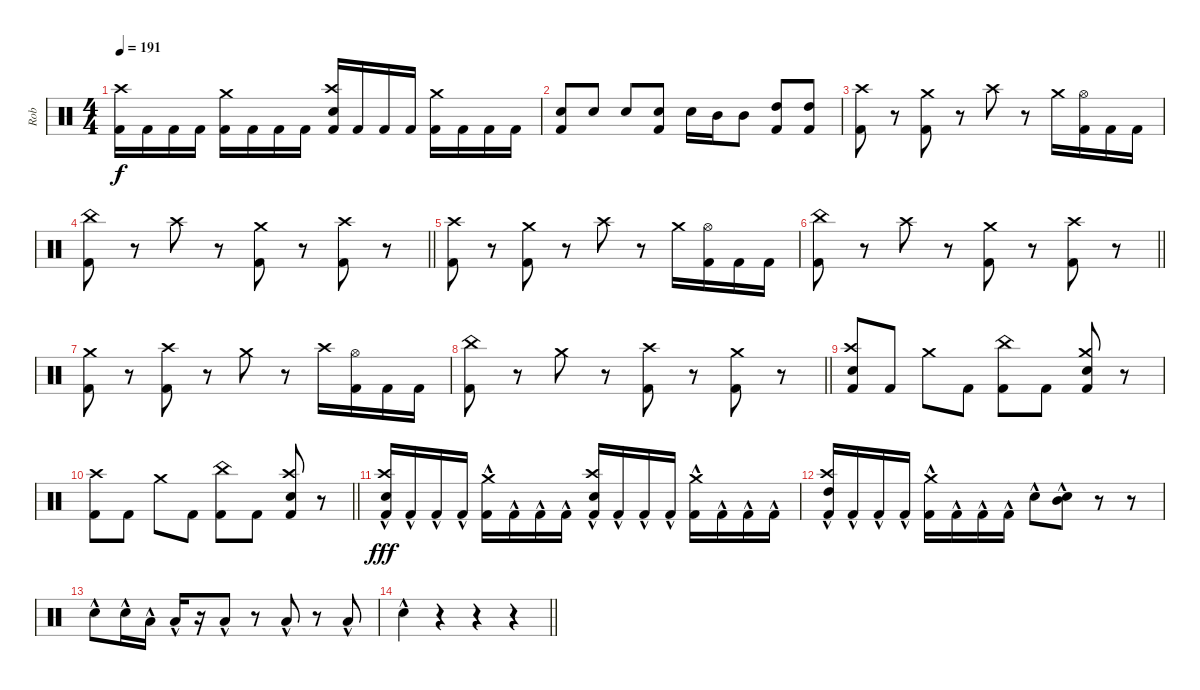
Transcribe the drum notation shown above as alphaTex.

\track ("Rob" "Rob") {instrument percussion}
\staff {score}
\articulation defaults
\ts (4 4)
\tempo 191
\clef neutral
\ks c
("Kick (hit) 2" "Crash high (hit)").16{dy f} "Kick (hit) 2".16 "Kick (hit) 2".16 "Kick (hit) 2".16 ("Kick (hit) 2" "Crash medium (hit)").16 "Kick (hit) 2".16 "Kick (hit) 2".16 "Kick (hit) 2".16 ("Kick (hit) 2" "Crash high (hit)" "Snare (hit) 2").16 "Kick (hit) 2".16 "Kick (hit) 2".16 "Kick (hit) 2".16 ("Kick (hit) 2" "Crash medium (hit)").16 "Kick (hit) 2".16 "Kick (hit) 2".16 "Kick (hit) 2".16 |
("Snare (hit) 2" "Kick (hit) 2").8 "Snare (hit) 2".8 "Snare (hit) 2".8 ("Snare (hit) 2" "Kick (hit) 2").8 "Snare (hit) 2".16 "Mid Tom (hit)".16 "Mid Tom (hit)".8 ("High Tom (hit)" "Kick (hit) 2").8 ("High Tom (hit)" "Kick (hit) 2").8 |
("Crash high (hit)" "Kick (hit) 2").8 r.8 ("Crash medium (hit)" "Kick (hit) 2").8 r.8 "Crash high (hit)".8 r.8 "Crash medium (hit)".16 ("Hi-Hat (open)" "Kick (hit) 2").16 "Kick (hit) 2".16 "Kick (hit) 2".16 |
\barLineRight lightlight
("China (hit)" "Kick (hit) 2").8 r.8 "Crash high (hit)".8 r.8 ("Crash medium (hit)" "Kick (hit) 2").8 r.8 ("Crash high (hit)" "Kick (hit) 2").8 r.8 |
("Crash high (hit)" "Kick (hit) 2").8 r.8 ("Crash medium (hit)" "Kick (hit) 2").8 r.8 "Crash high (hit)".8 r.8 "Crash medium (hit)".16 ("Hi-Hat (open)" "Kick (hit) 2").16 "Kick (hit) 2".16 "Kick (hit) 2".16 |
\barLineRight lightlight
("China (hit)" "Kick (hit) 2").8 r.8 "Crash high (hit)".8 r.8 ("Crash medium (hit)" "Kick (hit) 2").8 r.8 ("Crash high (hit)" "Kick (hit) 2").8 r.8 |
("Crash medium (hit)" "Kick (hit) 2").8 r.8 ("Crash high (hit)" "Kick (hit) 2").8 r.8 "Crash medium (hit)".8 r.8 "Crash high (hit)".16 ("Hi-Hat (open)" "Kick (hit) 2").16 "Kick (hit) 2".16 "Kick (hit) 2".16 |
\barLineRight lightlight
("China (hit)" "Kick (hit) 2").8 r.8 "Crash medium (hit)".8 r.8 ("Crash high (hit)" "Kick (hit) 2").8 r.8 ("Crash medium (hit)" "Kick (hit) 2").8 r.8 |
("Kick (hit) 2" "Crash high (hit)" "Snare (hit) 2").8 "Kick (hit) 2".8 "Crash medium (hit)".8 "Kick (hit) 2".8 ("Kick (hit) 2" "China (hit)").8 "Kick (hit) 2".8 ("Kick (hit) 2" "Crash medium (hit)" "Snare (hit) 2").8 r.8 |
\barLineRight lightlight
("Kick (hit) 2" "Crash high (hit)").8 "Kick (hit) 2".8 "Crash medium (hit)".8 "Kick (hit) 2".8 ("Kick (hit) 2" "China (hit)").8 "Kick (hit) 2".8 ("Kick (hit) 2" "Crash high (hit)" "Snare (hit) 2").8 r.8 |
("Kick (hit) 2"{hac} "Crash high (hit)"{hac} "Snare (hit) 2"{hac}).16{dy fff} "Kick (hit) 2"{hac}.16 "Kick (hit) 2"{hac}.16 "Kick (hit) 2"{hac}.16 ("Kick (hit) 2"{hac} "Crash medium (hit)"{hac}).16 "Kick (hit) 2"{hac}.16 "Kick (hit) 2"{hac}.16 "Kick (hit) 2"{hac}.16 ("Kick (hit) 2"{hac} "Crash high (hit)"{hac} "Snare (hit) 2"{hac}).16 "Kick (hit) 2"{hac}.16 "Kick (hit) 2"{hac}.16 "Kick (hit) 2"{hac}.16 ("Kick (hit) 2"{hac} "Crash medium (hit)"{hac}).16 "Kick (hit) 2"{hac}.16 "Kick (hit) 2"{hac}.16 "Kick (hit) 2"{hac}.16 |
("Kick (hit) 2"{hac} "Crash high (hit)"{hac} "High Tom (hit)"{hac}).16 "Kick (hit) 2"{hac}.16 "Kick (hit) 2"{hac}.16 "Kick (hit) 2"{hac}.16 ("Kick (hit) 2"{hac} "Crash medium (hit)"{hac}).16 "Kick (hit) 2"{hac}.16 "Kick (hit) 2"{hac}.16 "Kick (hit) 2"{hac}.16 "Snare (hit) 2"{hac}.8 ("Snare (hit) 2"{hac} "Mid Tom (hit)"{hac}).8 r.8 r.8 |
"Snare (hit) 2"{hac}.8 "Snare (hit) 2"{hac}.16 "Low Tom (hit)"{hac}.16 "Low Tom (hit)"{hac}.16 r.16 "Low Tom (hit)"{hac}.8 r.8 "Low Tom (hit)"{hac}.8 r.8 "Low Tom (hit)"{hac}.8 |
\barLineRight lightlight "Snare (hit) 2"{hac}.4
r.4 r.4 r.4
